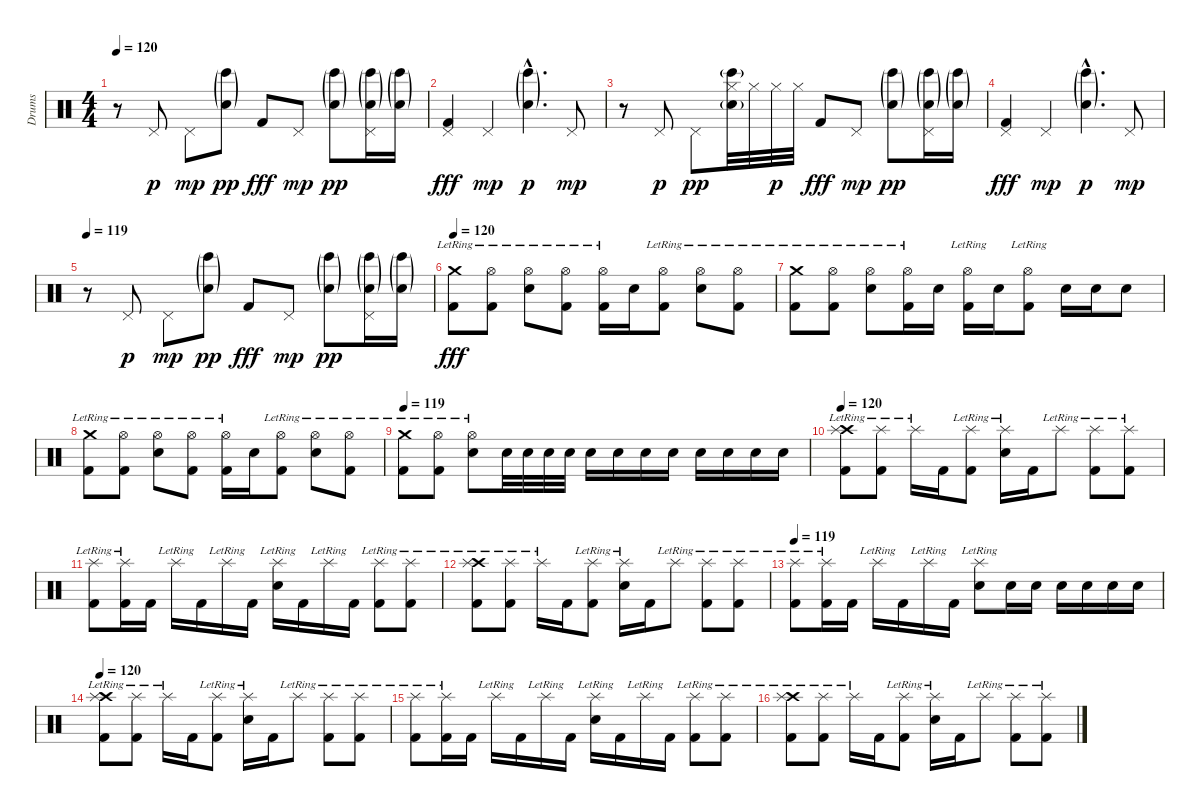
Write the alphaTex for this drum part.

\track ("Drums" "Drums") {instrument percussion}
\staff {score}
\articulation defaults
\ts (4 4)
\tempo 120
\clef neutral
\ks c
r.8{dy mp} "Pedal Hi-Hat (hit)".8{dy p} "Pedal Hi-Hat (hit)".8{dy mp} ("Bongo High (hit)"{g} "Electric Snare (hit)"{g}).8{dy pp} "Kick (hit) 2".8{dy fff} "Pedal Hi-Hat (hit)".8{dy mp} ("Bongo High (hit)"{g} "Electric Snare (hit)"{g}).8{dy pp} ("Pedal Hi-Hat (hit)" "Bongo High (hit)"{g} "Electric Snare (hit)"{g}).16 ("Bongo High (hit)"{g} "Electric Snare (hit)"{g}).16 |
("Pedal Hi-Hat (hit)" "Kick (hit) 2").4{dy fff} "Pedal Hi-Hat (hit)".4{dy mp} ("Bongo High (hit)"{g hac} "Electric Snare (hit)"{g hac}).4{d dy p} "Pedal Hi-Hat (hit)".8{dy mp} |
r.8 "Pedal Hi-Hat (hit)".8{dy p} "Pedal Hi-Hat (hit)".8{dy pp} ("Hi-Hat (closed)" "Bongo High (hit)"{g} "Electric Snare (hit)"{g}).32 "Hi-Hat (closed)".32 "Hi-Hat (closed)".32{dy p} "Hi-Hat (closed)".32 "Kick (hit) 2".8{dy fff} "Pedal Hi-Hat (hit)".8{dy mp} ("Bongo High (hit)"{g} "Electric Snare (hit)"{g}).8{dy pp} ("Pedal Hi-Hat (hit)" "Bongo High (hit)"{g} "Electric Snare (hit)"{g}).16 ("Bongo High (hit)"{g} "Electric Snare (hit)"{g}).16 |
("Pedal Hi-Hat (hit)" "Kick (hit) 2").4{dy fff} "Pedal Hi-Hat (hit)".4{dy mp} ("Bongo High (hit)"{g hac} "Electric Snare (hit)"{g hac}).4{d dy p} "Pedal Hi-Hat (hit)".8{dy mp} |
\tempo 119
r.8 "Pedal Hi-Hat (hit)".8{dy p} "Pedal Hi-Hat (hit)".8{dy mp} ("Bongo High (hit)"{g} "Electric Snare (hit)"{g}).8{dy pp} "Kick (hit) 2".8{dy fff} "Pedal Hi-Hat (hit)".8{dy mp} ("Bongo High (hit)"{g} "Electric Snare (hit)"{g}).8{dy pp} ("Pedal Hi-Hat (hit)" "Bongo High (hit)"{g} "Electric Snare (hit)"{g}).16 ("Bongo High (hit)"{g} "Electric Snare (hit)"{g}).16 |
\tempo 120
("Crash medium (hit)"{lr} "Kick (hit) 2").8{dy fff} ("Hi-Hat (open)"{lr} "Kick (hit) 2").8 ("Hi-Hat (open)"{lr} "Electric Snare (hit)").8 ("Hi-Hat (open)"{lr} "Kick (hit) 2").8 ("Hi-Hat (open)"{lr} "Kick (hit) 2").16 "Electric Snare (hit)".16 ("Hi-Hat (open)"{lr} "Kick (hit) 2").8 ("Hi-Hat (open)"{lr} "Electric Snare (hit)").8 ("Hi-Hat (open)"{lr} "Kick (hit) 2").8 |
("Crash medium (hit)"{lr} "Kick (hit) 2").8 ("Hi-Hat (open)"{lr} "Kick (hit) 2").8 ("Hi-Hat (open)"{lr} "Electric Snare (hit)").8 ("Hi-Hat (open)"{lr} "Kick (hit) 2").16 "Electric Snare (hit)".16 ("Hi-Hat (open)"{lr} "Kick (hit) 2").16 "Electric Snare (hit)".16 ("Hi-Hat (open)"{lr} "Kick (hit) 2").8 "Electric Snare (hit)".16 "Electric Snare (hit)".16 "Electric Snare (hit)".8 |
("Crash medium (hit)"{lr} "Kick (hit) 2").8 ("Hi-Hat (open)"{lr} "Kick (hit) 2").8 ("Hi-Hat (open)"{lr} "Electric Snare (hit)").8 ("Hi-Hat (open)"{lr} "Kick (hit) 2").8 ("Hi-Hat (open)"{lr} "Kick (hit) 2").16 "Electric Snare (hit)".16 ("Hi-Hat (open)"{lr} "Kick (hit) 2").8 ("Hi-Hat (open)"{lr} "Electric Snare (hit)").8 ("Hi-Hat (open)"{lr} "Kick (hit) 2").8 |
\tempo 119
("Crash medium (hit)"{lr} "Kick (hit) 2").8 ("Hi-Hat (open)"{lr} "Kick (hit) 2").8 ("Hi-Hat (open)"{lr} "Electric Snare (hit)").8 "Electric Snare (hit)".32 "Electric Snare (hit)".32 "Electric Snare (hit)".32 "Electric Snare (hit)".32 "Electric Snare (hit)".16 "Electric Snare (hit)".16 "Electric Snare (hit)".16 "Electric Snare (hit)".16 "Electric Snare (hit)".16 "Electric Snare (hit)".16 "Electric Snare (hit)".16 "Electric Snare (hit)".16 |
\tempo 120
("Crash high (hit)"{lr} "Splash (hit)"{lr} "Kick (hit) 2").8 ("Splash (hit)"{lr} "Kick (hit) 2").8 "Splash (hit)"{lr}.16 "Kick (hit) 2".16 ("Splash (hit)"{lr} "Kick (hit) 2").8 ("Splash (hit)"{lr} "Electric Snare (hit)").16 "Kick (hit) 2".16 "Splash (hit)"{lr}.8 ("Splash (hit)"{lr} "Kick (hit) 2").8 ("Splash (hit)"{lr} "Kick (hit) 2").8 |
("Splash (hit)"{lr} "Kick (hit) 2").8 ("Splash (hit)"{lr} "Kick (hit) 2").16 "Kick (hit) 2".16 "Splash (hit)"{lr}.16 "Kick (hit) 2".16 "Splash (hit)"{lr}.16 "Kick (hit) 2".16 ("Splash (hit)"{lr} "Electric Snare (hit)").16 "Kick (hit) 2".16 "Splash (hit)"{lr}.16 "Kick (hit) 2".16 ("Splash (hit)"{lr} "Kick (hit) 2").8 ("Splash (hit)"{lr} "Kick (hit) 2").8 |
("Crash high (hit)"{lr} "Splash (hit)"{lr} "Kick (hit) 2").8 ("Splash (hit)"{lr} "Kick (hit) 2").8 "Splash (hit)"{lr}.16 "Kick (hit) 2".16 ("Splash (hit)"{lr} "Kick (hit) 2").8 ("Splash (hit)"{lr} "Electric Snare (hit)").16 "Kick (hit) 2".16 "Splash (hit)"{lr}.8 ("Splash (hit)"{lr} "Kick (hit) 2").8 ("Splash (hit)"{lr} "Kick (hit) 2").8 |
\tempo 119
("Splash (hit)"{lr} "Kick (hit) 2").8 ("Splash (hit)"{lr} "Kick (hit) 2").16 "Kick (hit) 2".16 "Splash (hit)"{lr}.16 "Kick (hit) 2".16 "Splash (hit)"{lr}.16 "Kick (hit) 2".16 ("Splash (hit)"{lr} "Electric Snare (hit)").8 "Electric Snare (hit)".16 "Electric Snare (hit)".16 "Electric Snare (hit)".16 "Electric Snare (hit)".16 "Electric Snare (hit)".16 "Electric Snare (hit)".16 |
\tempo 120
("Crash high (hit)"{lr} "Splash (hit)"{lr} "Kick (hit) 2").8 ("Splash (hit)"{lr} "Kick (hit) 2").8 "Splash (hit)"{lr}.16 "Kick (hit) 2".16 ("Splash (hit)"{lr} "Kick (hit) 2").8 ("Splash (hit)"{lr} "Electric Snare (hit)").16 "Kick (hit) 2".16 "Splash (hit)"{lr}.8 ("Splash (hit)"{lr} "Kick (hit) 2").8 ("Splash (hit)"{lr} "Kick (hit) 2").8 |
("Splash (hit)"{lr} "Kick (hit) 2").8 ("Splash (hit)"{lr} "Kick (hit) 2").16 "Kick (hit) 2".16 "Splash (hit)"{lr}.16 "Kick (hit) 2".16 "Splash (hit)"{lr}.16 "Kick (hit) 2".16 ("Splash (hit)"{lr} "Electric Snare (hit)").16 "Kick (hit) 2".16 "Splash (hit)"{lr}.16 "Kick (hit) 2".16 ("Splash (hit)"{lr} "Kick (hit) 2").8 ("Splash (hit)"{lr} "Kick (hit) 2").8 |
("Crash high (hit)"{lr} "Splash (hit)"{lr} "Kick (hit) 2").8 ("Splash (hit)"{lr} "Kick (hit) 2").8 "Splash (hit)"{lr}.16 "Kick (hit) 2".16 ("Splash (hit)"{lr} "Kick (hit) 2").8 ("Splash (hit)"{lr} "Electric Snare (hit)").16 "Kick (hit) 2".16 "Splash (hit)"{lr}.8 ("Splash (hit)"{lr} "Kick (hit) 2").8 ("Splash (hit)"{lr} "Kick (hit) 2").8
